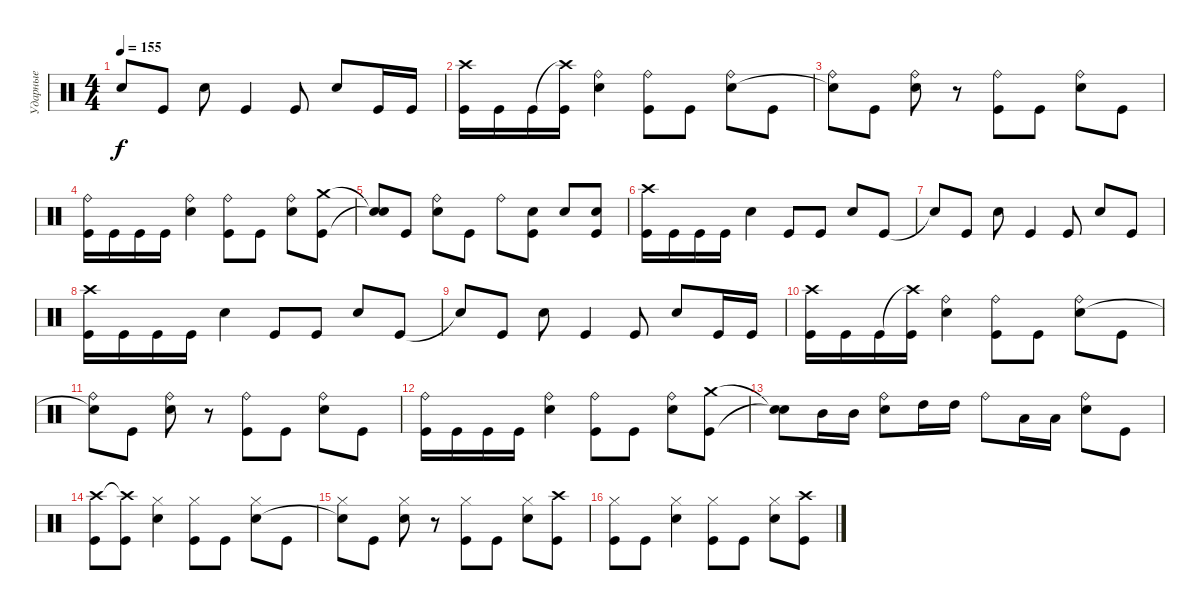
\track ("Ударные" "Ударные") {instrument percussion}
\staff {score}
\articulation defaults
\ts (4 4)
\tempo 155
\clef neutral
\ks c "Snare (hit)"{t}.8{dy f} "Kick (hit)".8 "Electric Snare (hit)".8 "Kick (hit)".4 "Kick (hit)".8 "Electric Snare (hit)".8 "Kick (hit)".16 "Kick (hit)".16
|
("Crash high (hit)" "Kick (hit)").16 "Kick (hit)".16 "Kick (hit)".16 ("Crash high (hit)"{t} "Kick (hit)").16 ("Ride (bell)" "Electric Snare (hit)").4 ("Ride (bell)" "Kick (hit)").8 "Kick (hit)".8 ("Ride (bell)" "Electric Snare (hit)").8 "Kick (hit)".8 |
("Ride (bell)" "Snare (hit)"{t}).8 "Kick (hit)".8 ("Ride (bell)" "Electric Snare (hit)").8 r.8 ("Ride (bell)" "Kick (hit)").8 "Kick (hit)".8 ("Ride (bell)" "Electric Snare (hit)").8 "Kick (hit)".8 |
("Ride (bell)" "Kick (hit)").16 "Kick (hit)".16 "Kick (hit)".16 "Kick (hit)".16 ("Ride (bell)" "Electric Snare (hit)").4 ("Ride (bell)" "Kick (hit)").8 "Kick (hit)".8 ("Ride (bell)" "Electric Snare (hit)").8 ("Crash medium (hit)" "Kick (hit)").8 |
("Snare (hit)"{t} "Snare (hit)"{t}).8 "Kick (hit)".8 ("Ride (bell)" "Electric Snare (hit)").8 "Kick (hit)".8 "Ride (bell)".8 ("Electric Snare (hit)" "Kick (hit)").8 "Electric Snare (hit)".8 ("Electric Snare (hit)" "Kick (hit)").8 |
("Crash high (hit)" "Kick (hit)").16 "Kick (hit)".16 "Kick (hit)".16 "Kick (hit)".16 "Electric Snare (hit)".4 "Kick (hit)".8 "Kick (hit)".8 "Electric Snare (hit)".8 "Kick (hit)".8 |
"Snare (hit)"{t}.8 "Kick (hit)".8 "Electric Snare (hit)".8 "Kick (hit)".4 "Kick (hit)".8 "Electric Snare (hit)".8 "Kick (hit)".8 |
("Crash high (hit)" "Kick (hit)").16 "Kick (hit)".16 "Kick (hit)".16 "Kick (hit)".16 "Electric Snare (hit)".4 "Kick (hit)".8 "Kick (hit)".8 "Electric Snare (hit)".8 "Kick (hit)".8 |
"Snare (hit)"{t}.8 "Kick (hit)".8 "Electric Snare (hit)".8 "Kick (hit)".4 "Kick (hit)".8 "Electric Snare (hit)".8 "Kick (hit)".16 "Kick (hit)".16 |
("Crash high (hit)" "Kick (hit)").16 "Kick (hit)".16 "Kick (hit)".16 ("Crash high (hit)"{t} "Kick (hit)").16 ("Ride (bell)" "Electric Snare (hit)").4 ("Ride (bell)" "Kick (hit)").8 "Kick (hit)".8 ("Ride (bell)" "Electric Snare (hit)").8 "Kick (hit)".8 |
("Ride (bell)" "Snare (hit)"{t}).8 "Kick (hit)".8 ("Ride (bell)" "Electric Snare (hit)").8 r.8 ("Ride (bell)" "Kick (hit)").8 "Kick (hit)".8 ("Ride (bell)" "Electric Snare (hit)").8 "Kick (hit)".8 |
("Ride (bell)" "Kick (hit)").16 "Kick (hit)".16 "Kick (hit)".16 "Kick (hit)".16 ("Ride (bell)" "Electric Snare (hit)").4 ("Ride (bell)" "Kick (hit)").8 "Kick (hit)".8 ("Ride (bell)" "Electric Snare (hit)").8 ("Crash medium (hit)" "Kick (hit)").8 |
("Snare (hit)"{t} "Snare (hit)"{t}).8 "Mid Tom (hit)".16 "Mid Tom (hit)".16 ("Ride (bell)" "Electric Snare (hit)").8 "High Tom (hit)".16 "High Tom (hit)".16 "Ride (bell)".8 "Low Tom (hit)".16 "Low Tom (hit)".16 ("Ride (bell)" "Electric Snare (hit)").8 "Kick (hit)".8 |
("Crash high (hit)" "Kick (hit)").8 ("Crash high (hit)"{t} "Kick (hit)").8 ("Hi-Hat (closed)" "Electric Snare (hit)").4 ("Hi-Hat (closed)" "Kick (hit)").8 "Kick (hit)".8 ("Hi-Hat (closed)" "Electric Snare (hit)").8 "Kick (hit)".8 |
("Hi-Hat (closed)" "Snare (hit)"{t}).8 "Kick (hit)".8 ("Hi-Hat (closed)" "Electric Snare (hit)").8 r.8 ("Hi-Hat (closed)" "Kick (hit)").8 "Kick (hit)".8 ("Hi-Hat (closed)" "Electric Snare (hit)").8 ("Crash high (hit)" "Kick (hit)").8 |
("Hi-Hat (closed)" "Kick (hit)").8 "Kick (hit)".8 ("Hi-Hat (closed)" "Electric Snare (hit)").4 ("Hi-Hat (closed)" "Kick (hit)").8 "Kick (hit)".8 ("Hi-Hat (closed)" "Electric Snare (hit)").8 ("Crash high (hit)" "Kick (hit)").8
